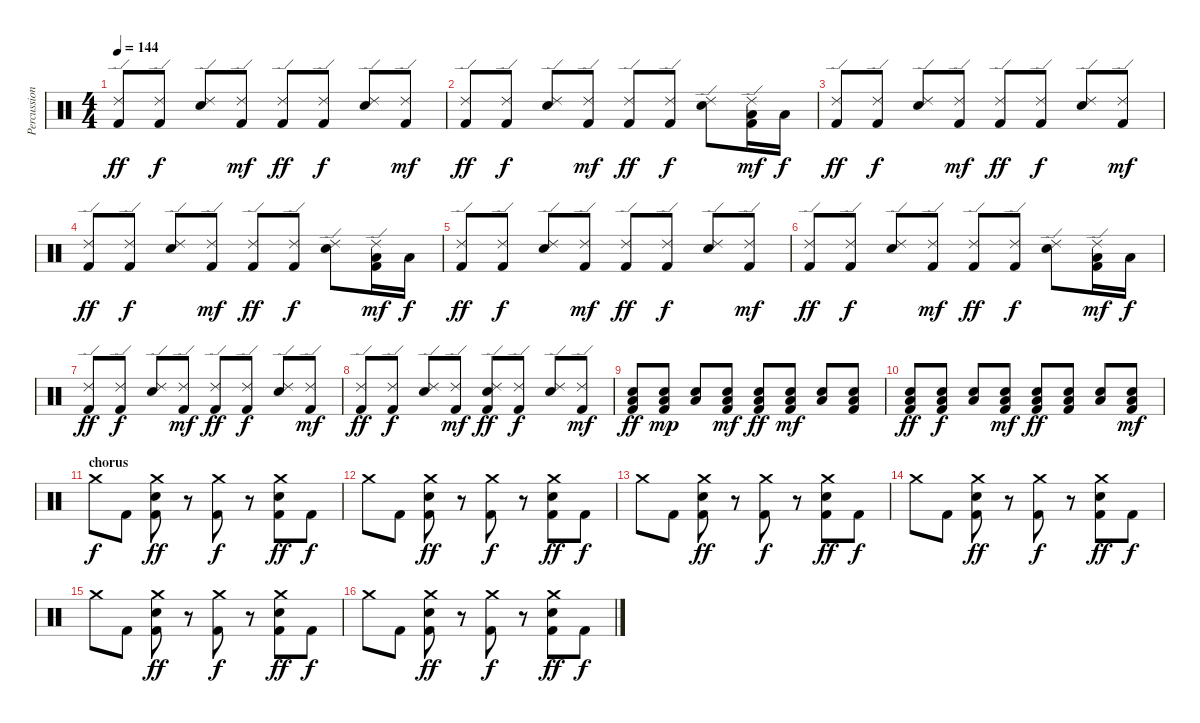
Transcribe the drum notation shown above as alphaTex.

\track ("Percussion" "Percussion") {instrument percussion}
\staff {score}
\articulation defaults
\ts (4 4)
\tempo 144
\clef neutral
\ks c
("Ride (edge) 2" "Kick (hit) 2").8{dy ff} ("Ride (edge) 2" "Kick (hit) 2").8{dy f} ("Ride (edge) 2" "Snare (hit) 2").8 ("Ride (edge) 2" "Kick (hit) 2").8{dy mf} ("Ride (edge) 2" "Kick (hit) 2").8{dy ff} ("Ride (edge) 2" "Kick (hit) 2").8{dy f} ("Ride (edge) 2" "Snare (hit) 2").8 ("Ride (edge) 2" "Kick (hit) 2").8{dy mf} |
("Ride (edge) 2" "Kick (hit) 2").8{dy ff} ("Ride (edge) 2" "Kick (hit) 2").8{dy f} ("Ride (edge) 2" "Snare (hit) 2").8 ("Ride (edge) 2" "Kick (hit) 2").8{dy mf} ("Ride (edge) 2" "Kick (hit) 2").8{dy ff} ("Ride (edge) 2" "Kick (hit) 2").8{dy f} ("Ride (edge) 2" "Snare (hit) 2").8 ("Ride (edge) 2" "Low Tom (hit)" "Kick (hit) 2").16{dy mf} "Low Tom (hit)".16{dy f} |
("Ride (edge) 2" "Kick (hit) 2").8{dy ff} ("Ride (edge) 2" "Kick (hit) 2").8{dy f} ("Ride (edge) 2" "Snare (hit) 2").8 ("Ride (edge) 2" "Kick (hit) 2").8{dy mf} ("Ride (edge) 2" "Kick (hit) 2").8{dy ff} ("Ride (edge) 2" "Kick (hit) 2").8{dy f} ("Ride (edge) 2" "Snare (hit) 2").8 ("Ride (edge) 2" "Kick (hit) 2").8{dy mf} |
("Ride (edge) 2" "Kick (hit) 2").8{dy ff} ("Ride (edge) 2" "Kick (hit) 2").8{dy f} ("Ride (edge) 2" "Snare (hit) 2").8 ("Ride (edge) 2" "Kick (hit) 2").8{dy mf} ("Ride (edge) 2" "Kick (hit) 2").8{dy ff} ("Ride (edge) 2" "Kick (hit) 2").8{dy f} ("Ride (edge) 2" "Snare (hit) 2").8 ("Ride (edge) 2" "Low Tom (hit)" "Kick (hit) 2").16{dy mf} "Low Tom (hit)".16{dy f} |
("Ride (edge) 2" "Kick (hit) 2").8{dy ff} ("Ride (edge) 2" "Kick (hit) 2").8{dy f} ("Ride (edge) 2" "Snare (hit) 2").8 ("Ride (edge) 2" "Kick (hit) 2").8{dy mf} ("Ride (edge) 2" "Kick (hit) 2").8{dy ff} ("Ride (edge) 2" "Kick (hit) 2").8{dy f} ("Ride (edge) 2" "Snare (hit) 2").8 ("Ride (edge) 2" "Kick (hit) 2").8{dy mf} |
("Ride (edge) 2" "Kick (hit) 2").8{dy ff} ("Ride (edge) 2" "Kick (hit) 2").8{dy f} ("Ride (edge) 2" "Snare (hit) 2").8 ("Ride (edge) 2" "Kick (hit) 2").8{dy mf} ("Ride (edge) 2" "Kick (hit) 2").8{dy ff} ("Ride (edge) 2" "Kick (hit) 2").8{dy f} ("Ride (edge) 2" "Snare (hit) 2").8 ("Ride (edge) 2" "Low Tom (hit)" "Kick (hit) 2").16{dy mf} "Low Tom (hit)".16{dy f} |
("Ride (edge) 2" "Kick (hit) 2").8{dy ff} ("Ride (edge) 2" "Kick (hit) 2").8{dy f} ("Ride (edge) 2" "Snare (hit) 2").8 ("Ride (edge) 2" "Kick (hit) 2").8{dy mf} ("Ride (edge) 2" "Kick (hit) 2").8{dy ff} ("Ride (edge) 2" "Kick (hit) 2").8{dy f} ("Ride (edge) 2" "Snare (hit) 2").8 ("Ride (edge) 2" "Kick (hit) 2").8{dy mf} |
("Ride (edge) 2" "Kick (hit) 2").8{dy ff} ("Ride (edge) 2" "Kick (hit) 2").8{dy f} ("Ride (edge) 2" "Snare (hit) 2").8 ("Ride (edge) 2" "Kick (hit) 2").8{dy mf} ("Ride (edge) 2" "Snare (hit) 2" "Kick (hit) 2").8{dy ff} ("Ride (edge) 2" "Kick (hit) 2").8{dy f} ("Ride (edge) 2" "Snare (hit) 2").8 ("Ride (edge) 2" "Kick (hit) 2").8{dy mf} |
("Low Tom (hit)" "Snare (hit) 2" "Kick (hit) 2").8{dy ff} ("Low Tom (hit)" "Snare (hit) 2" "Kick (hit) 2").8{dy mp} ("Low Tom (hit)" "Snare (hit) 2").8 ("Low Tom (hit)" "Snare (hit) 2" "Kick (hit) 2").8{dy mf} ("Low Tom (hit)" "Snare (hit) 2" "Kick (hit) 2").8{dy ff} ("Low Tom (hit)" "Snare (hit) 2" "Kick (hit) 2").8{dy mf} ("Low Tom (hit)" "Snare (hit) 2").8 ("Low Tom (hit)" "Snare (hit) 2" "Kick (hit) 2").8 |
("Low Tom (hit)" "Snare (hit) 2" "Kick (hit) 2").8{dy ff} ("Low Tom (hit)" "Snare (hit) 2" "Kick (hit) 2").8{dy f} ("Low Tom (hit)" "Snare (hit) 2").8 ("Low Tom (hit)" "Snare (hit) 2" "Kick (hit) 2").8{dy mf} ("Low Tom (hit)" "Snare (hit) 2" "Kick (hit) 2").8{dy ff} ("Low Tom (hit)" "Snare (hit) 2" "Kick (hit) 2").8 ("Low Tom (hit)" "Snare (hit) 2").8 ("Low Tom (hit)" "Snare (hit) 2" "Kick (hit) 2").8{dy mf} |
\section ("" "chorus")
"Crash medium (hit)".8{dy f} "Kick (hit) 2".8 ("Crash medium (hit)" "Snare (hit) 2" "Kick (hit) 2").8{dy ff} r.8 ("Crash medium (hit)" "Kick (hit) 2").8{dy f} r.8 ("Crash medium (hit)" "Snare (hit) 2" "Kick (hit) 2").8{dy ff} "Kick (hit) 2".8{dy f} |
"Crash medium (hit)".8 "Kick (hit) 2".8 ("Crash medium (hit)" "Snare (hit) 2" "Kick (hit) 2").8{dy ff} r.8 ("Crash medium (hit)" "Kick (hit) 2").8{dy f} r.8 ("Crash medium (hit)" "Snare (hit) 2" "Kick (hit) 2").8{dy ff} "Kick (hit) 2".8{dy f} |
"Crash medium (hit)".8 "Kick (hit) 2".8 ("Crash medium (hit)" "Snare (hit) 2" "Kick (hit) 2").8{dy ff} r.8 ("Crash medium (hit)" "Kick (hit) 2").8{dy f} r.8 ("Crash medium (hit)" "Snare (hit) 2" "Kick (hit) 2").8{dy ff} "Kick (hit) 2".8{dy f} |
"Crash medium (hit)".8 "Kick (hit) 2".8 ("Crash medium (hit)" "Snare (hit) 2" "Kick (hit) 2").8{dy ff} r.8 ("Crash medium (hit)" "Kick (hit) 2").8{dy f} r.8 ("Crash medium (hit)" "Snare (hit) 2" "Kick (hit) 2").8{dy ff} "Kick (hit) 2".8{dy f} |
"Crash medium (hit)".8 "Kick (hit) 2".8 ("Crash medium (hit)" "Snare (hit) 2" "Kick (hit) 2").8{dy ff} r.8 ("Crash medium (hit)" "Kick (hit) 2").8{dy f} r.8 ("Crash medium (hit)" "Snare (hit) 2" "Kick (hit) 2").8{dy ff} "Kick (hit) 2".8{dy f} |
"Crash medium (hit)".8 "Kick (hit) 2".8 ("Crash medium (hit)" "Snare (hit) 2" "Kick (hit) 2").8{dy ff} r.8 ("Crash medium (hit)" "Kick (hit) 2").8{dy f} r.8 ("Crash medium (hit)" "Snare (hit) 2" "Kick (hit) 2").8{dy ff} "Kick (hit) 2".8{dy f}
